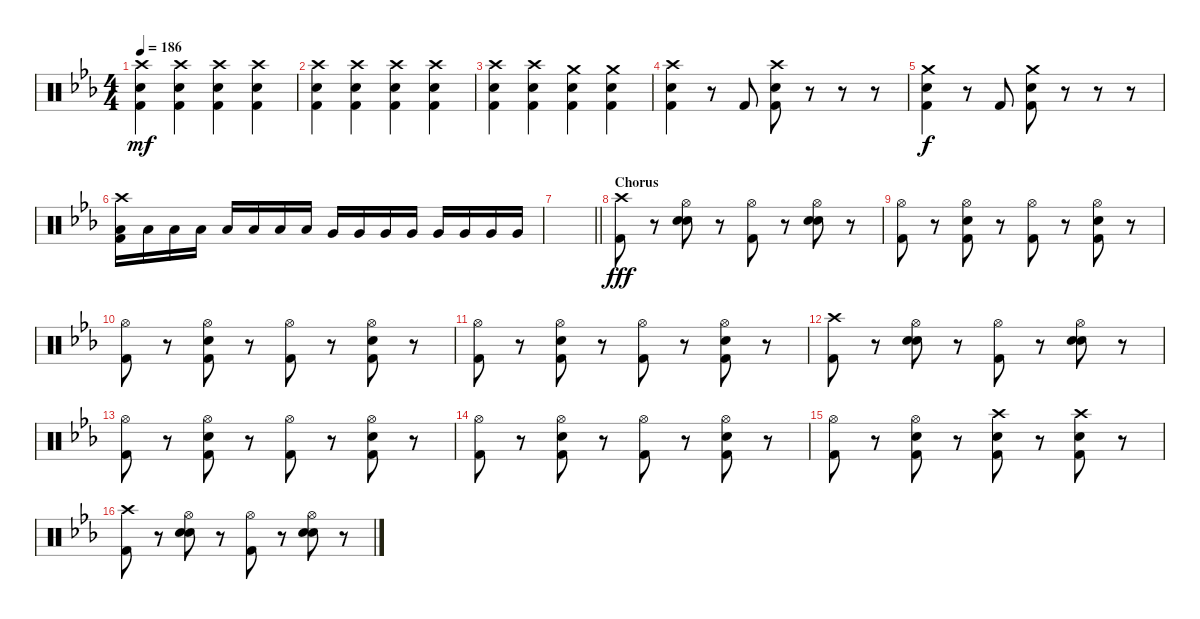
\track "" {instrument percussion}
\staff {score}
\articulation defaults
\ts (4 4)
\tempo 186
\clef neutral
\ks eb
("Crash high (hit)" "Snare (hit) 2" "Kick (hit) 2").4{dy mf} ("Crash high (hit)" "Snare (hit) 2" "Kick (hit) 2").4 ("Crash high (hit)" "Snare (hit) 2" "Kick (hit) 2").4 ("Crash high (hit)" "Snare (hit) 2" "Kick (hit) 2").4 |
("Crash high (hit)" "Snare (hit) 2" "Kick (hit) 2").4 ("Crash high (hit)" "Snare (hit) 2" "Kick (hit) 2").4 ("Crash high (hit)" "Snare (hit) 2" "Kick (hit) 2").4 ("Crash high (hit)" "Snare (hit) 2" "Kick (hit) 2").4 |
("Crash high (hit)" "Snare (hit) 2" "Kick (hit) 2").4 ("Crash high (hit)" "Snare (hit) 2" "Kick (hit) 2").4 ("Crash medium (hit)" "Snare (hit) 2" "Kick (hit) 2").4 ("Crash medium (hit)" "Snare (hit) 2" "Kick (hit) 2").4 |
("Crash high (hit)" "Snare (hit) 2" "Kick (hit) 2").4 r.8 "Kick (hit) 2".8 ("Crash high (hit)" "Snare (hit) 2" "Kick (hit) 2").8 r.8 r.8 r.8 |
("Crash medium (hit)" "Snare (hit) 2" "Kick (hit) 2").4{dy f} r.8 "Kick (hit) 2".8 ("Crash medium (hit)" "Snare (hit) 2" "Kick (hit) 2").8 r.8 r.8 r.8 |
("Crash high (hit)" "Low Tom (hit)" "Kick (hit) 2").16 "Low Tom (hit)".16 "Low Tom (hit)".16 "Low Tom (hit)".16 "Low Tom (hit)".16 "Low Tom (hit)".16 "Low Tom (hit)".16 "Low Tom (hit)".16 "Very Low Tom (hit)".16 "Very Low Tom (hit)".16 "Very Low Tom (hit)".16 "Very Low Tom (hit)".16 "Very Low Tom (hit)".16 "Very Low Tom (hit)".16 "Very Low Tom (hit)".16 "Very Low Tom (hit)".16 |
\barLineRight lightlight
|
\section ("" "Chorus")
("Crash high (hit)" "Kick (hit) 2").8{dy fff} r.8 ("Hi-Hat (open)" "Snare (hit) 2" "Snare (hit) 2").8 r.8 ("Hi-Hat (open)" "Kick (hit) 2").8 r.8 ("Hi-Hat (open)" "Snare (hit) 2" "Snare (hit) 2").8 r.8 |
("Hi-Hat (open)" "Kick (hit) 2").8 r.8 ("Hi-Hat (open)" "Snare (hit) 2" "Kick (hit) 2").8 r.8 ("Hi-Hat (open)" "Kick (hit) 2").8 r.8 ("Hi-Hat (open)" "Snare (hit) 2" "Kick (hit) 2").8 r.8 |
("Hi-Hat (open)" "Kick (hit) 2").8 r.8 ("Hi-Hat (open)" "Snare (hit) 2" "Kick (hit) 2").8 r.8 ("Hi-Hat (open)" "Kick (hit) 2").8 r.8 ("Hi-Hat (open)" "Snare (hit) 2" "Kick (hit) 2").8 r.8 |
("Hi-Hat (open)" "Kick (hit) 2").8 r.8 ("Hi-Hat (open)" "Snare (hit) 2" "Kick (hit) 2").8 r.8 ("Hi-Hat (open)" "Kick (hit) 2").8 r.8 ("Hi-Hat (open)" "Snare (hit) 2" "Kick (hit) 2").8 r.8 |
("Crash high (hit)" "Kick (hit) 2").8 r.8 ("Hi-Hat (open)" "Snare (hit) 2" "Snare (hit) 2").8 r.8 ("Hi-Hat (open)" "Kick (hit) 2").8 r.8 ("Hi-Hat (open)" "Snare (hit) 2" "Snare (hit) 2").8 r.8 |
("Hi-Hat (open)" "Kick (hit) 2").8 r.8 ("Hi-Hat (open)" "Snare (hit) 2" "Kick (hit) 2").8 r.8 ("Hi-Hat (open)" "Kick (hit) 2").8 r.8 ("Hi-Hat (open)" "Snare (hit) 2" "Kick (hit) 2").8 r.8 |
("Hi-Hat (open)" "Kick (hit) 2").8 r.8 ("Hi-Hat (open)" "Snare (hit) 2" "Kick (hit) 2").8 r.8 ("Hi-Hat (open)" "Kick (hit) 2").8 r.8 ("Hi-Hat (open)" "Snare (hit) 2" "Kick (hit) 2").8 r.8 |
("Hi-Hat (open)" "Kick (hit) 2").8 r.8 ("Hi-Hat (open)" "Snare (hit) 2" "Kick (hit) 2").8 r.8 ("Crash high (hit)" "Snare (hit) 2" "Kick (hit) 2").8 r.8 ("Crash high (hit)" "Snare (hit) 2" "Kick (hit) 2").8 r.8 |
("Crash high (hit)" "Kick (hit) 2").8 r.8 ("Hi-Hat (open)" "Snare (hit) 2" "Snare (hit) 2").8 r.8 ("Hi-Hat (open)" "Kick (hit) 2").8 r.8 ("Hi-Hat (open)" "Snare (hit) 2" "Snare (hit) 2").8 r.8
